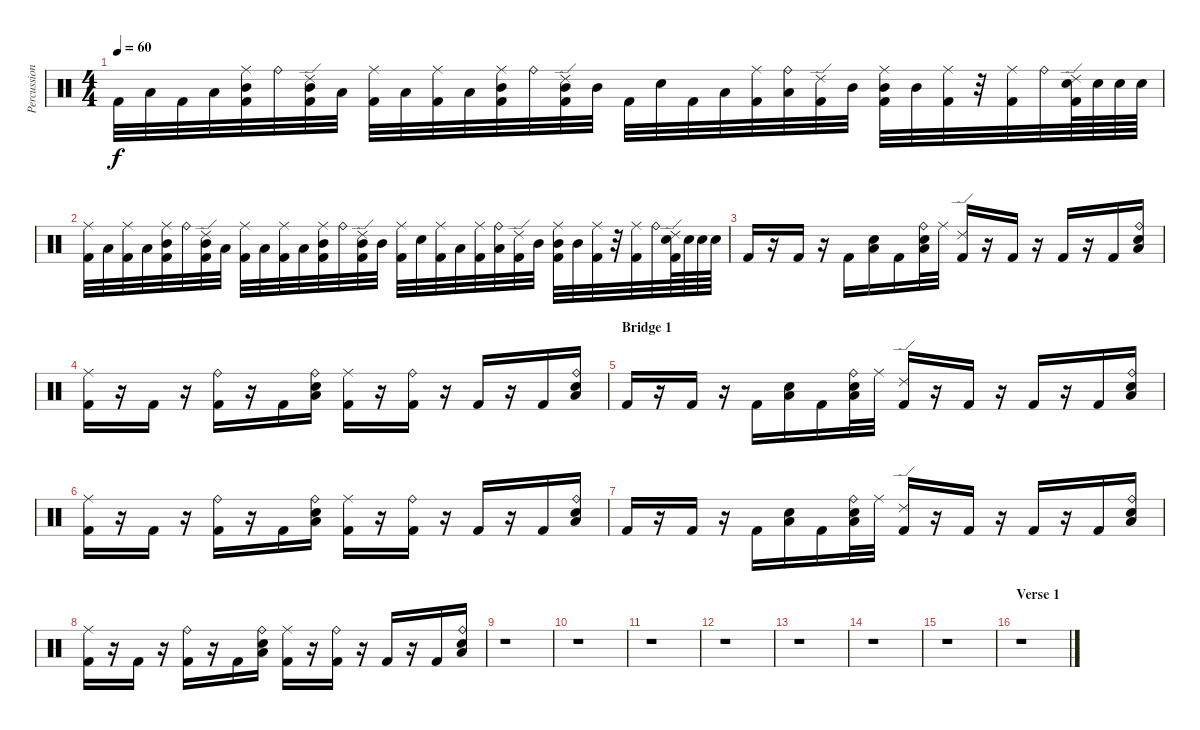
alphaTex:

\track ("Percussion" "Percussion") {instrument percussion}
\staff {score}
\articulation defaults
\ts (4 4)
\tempo 60
\clef neutral
\ks c "Kick (hit) 2".32{dy f} "Low Tom (hit)".32 "Kick (hit) 2".32 "Low Tom (hit)".32
("Ride (middle)" "Mid Tom (hit)" "Kick (hit) 2").32 "Ride (bell)".32 ("Ride (edge) 2" "Mid Tom (hit)" "Kick (hit) 2").32 "Low Tom (hit)".32 ("Ride (middle)" "Kick (hit) 2").32 "Low Tom (hit)".32 ("Ride (middle)" "Kick (hit) 2").32 "Low Tom (hit)".32 ("Ride (middle)" "Mid Tom (hit)" "Kick (hit) 2").32 "Ride (bell)".32 ("Ride (edge) 2" "Mid Tom (hit)" "Kick (hit) 2").32 "Mid Tom (hit)".32 "Kick (hit) 2".32 "Electric Snare (hit)".32 "Kick (hit) 2".32 "Low Tom (hit)".32 ("Ride (middle)" "Kick (hit) 2").32 ("Ride (bell)" "Low Tom (hit)").32 ("Ride (edge) 2" "Kick (hit) 2").32 "Mid Tom (hit)".32 ("Ride (middle)" "Mid Tom (hit)" "Kick (hit) 2").32 "Mid Tom (hit)".32 ("Ride (middle)" "Kick (hit) 2").32 r.32 ("Ride (middle)" "Kick (hit) 2").32 "Ride (bell)".32 ("Ride (edge) 2" "Electric Snare (hit)" "Kick (hit) 2").64 "Electric Snare (hit)".64 "Electric Snare (hit)".64 "Electric Snare (hit)".64 |
("Ride (middle)" "Kick (hit) 2").32 "Low Tom (hit)".32 ("Ride (middle)" "Kick (hit) 2").32 "Low Tom (hit)".32 ("Ride (middle)" "Mid Tom (hit)" "Kick (hit) 2").32 "Ride (bell)".32 ("Ride (edge) 2" "Mid Tom (hit)" "Kick (hit) 2").32 "Low Tom (hit)".32 ("Ride (middle)" "Kick (hit) 2").32 "Low Tom (hit)".32 ("Ride (middle)" "Kick (hit) 2").32 "Low Tom (hit)".32 ("Ride (middle)" "Mid Tom (hit)" "Kick (hit) 2").32 "Ride (bell)".32 ("Ride (edge) 2" "Mid Tom (hit)" "Kick (hit) 2").32 "Mid Tom (hit)".32 ("Ride (middle)" "Kick (hit) 2").32 "Electric Snare (hit)".32 ("Ride (middle)" "Kick (hit) 2").32 "Low Tom (hit)".32 ("Ride (middle)" "Kick (hit) 2").32 ("Ride (bell)" "Low Tom (hit)").32 ("Ride (edge) 2" "Kick (hit) 2").32 "Mid Tom (hit)".32 ("Ride (middle)" "Mid Tom (hit)" "Kick (hit) 2").32 "Mid Tom (hit)".32 ("Ride (middle)" "Kick (hit) 2").32 r.32 ("Ride (middle)" "Kick (hit) 2").32 "Ride (bell)".32 ("Ride (edge) 2" "Electric Snare (hit)" "Kick (hit) 2").64 "Electric Snare (hit)".64 "Electric Snare (hit)".64 "Electric Snare (hit)".64 |
"Kick (hit) 2".16 r.16 "Kick (hit) 2".16 r.16 "Kick (hit) 2".16 ("Low Tom (hit)" "Electric Snare (hit)").16 "Kick (hit) 2".16 ("Ride (bell)" "Low Tom (hit)" "Electric Snare (hit)").32 "Ride (middle)".32 ("Ride (edge) 2" "Kick (hit) 2").16 r.16 "Kick (hit) 2".16 r.16 "Kick (hit) 2".16 r.16 "Kick (hit) 2".16 ("Ride (bell)" "Low Tom (hit)" "Electric Snare (hit)").16 |
("Ride (middle)" "Kick (hit) 2").16 r.16 "Kick (hit) 2".16 r.16 ("Ride (bell)" "Kick (hit) 2").16 r.16 "Kick (hit) 2".16 ("Ride (bell)" "Low Tom (hit)" "Electric Snare (hit)").16 ("Ride (middle)" "Kick (hit) 2").16 r.16 ("Ride (bell)" "Kick (hit) 2").16 r.16 "Kick (hit) 2".16 r.16 "Kick (hit) 2".16 ("Ride (bell)" "Low Tom (hit)" "Electric Snare (hit)").16 |
\section ("" "Bridge 1")
"Kick (hit) 2".16 r.16 "Kick (hit) 2".16 r.16 "Kick (hit) 2".16 ("Low Tom (hit)" "Electric Snare (hit)").16 "Kick (hit) 2".16 ("Ride (bell)" "Low Tom (hit)" "Electric Snare (hit)").32 "Ride (middle)".32 ("Ride (edge) 2" "Kick (hit) 2").16 r.16 "Kick (hit) 2".16 r.16 "Kick (hit) 2".16 r.16 "Kick (hit) 2".16 ("Ride (bell)" "Low Tom (hit)" "Electric Snare (hit)").16 |
("Ride (middle)" "Kick (hit) 2").16 r.16 "Kick (hit) 2".16 r.16 ("Ride (bell)" "Kick (hit) 2").16 r.16 "Kick (hit) 2".16 ("Ride (bell)" "Low Tom (hit)" "Electric Snare (hit)").16 ("Ride (middle)" "Kick (hit) 2").16 r.16 ("Ride (bell)" "Kick (hit) 2").16 r.16 "Kick (hit) 2".16 r.16 "Kick (hit) 2".16 ("Ride (bell)" "Low Tom (hit)" "Electric Snare (hit)").16 |
"Kick (hit) 2".16 r.16 "Kick (hit) 2".16 r.16 "Kick (hit) 2".16 ("Low Tom (hit)" "Electric Snare (hit)").16 "Kick (hit) 2".16 ("Ride (bell)" "Low Tom (hit)" "Electric Snare (hit)").32 "Ride (middle)".32 ("Ride (edge) 2" "Kick (hit) 2").16 r.16 "Kick (hit) 2".16 r.16 "Kick (hit) 2".16 r.16 "Kick (hit) 2".16 ("Ride (bell)" "Low Tom (hit)" "Electric Snare (hit)").16 |
("Ride (middle)" "Kick (hit) 2").16 r.16 "Kick (hit) 2".16 r.16 ("Ride (bell)" "Kick (hit) 2").16 r.16 "Kick (hit) 2".16 ("Ride (bell)" "Low Tom (hit)" "Electric Snare (hit)").16 ("Ride (middle)" "Kick (hit) 2").16 r.16 ("Ride (bell)" "Kick (hit) 2").16 r.16 "Kick (hit) 2".16 r.16 "Kick (hit) 2".16 ("Ride (bell)" "Low Tom (hit)" "Electric Snare (hit)").16 |
r.1 |
r.1 |
r.1 |
r.1 |
r.1 |
r.1 |
r.1 |
\section ("" "Verse 1")
r.1
